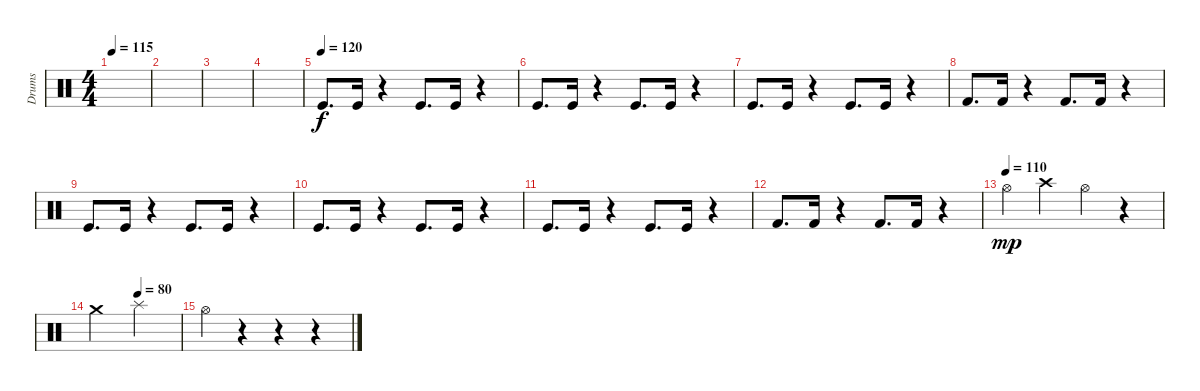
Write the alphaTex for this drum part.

\track ("Drums" "Drums") {instrument percussion}
\staff {score}
\articulation defaults
\ts (4 4)
\tempo 115
\clef neutral
\ks c
|
|
|
|
\tempo (120)
"Kick (hit)".8{d} "Kick (hit)".16 r.4 "Kick (hit)".8{d} "Kick (hit)".16 r.4 |
"Kick (hit)".8{d} "Kick (hit)".16 r.4 "Kick (hit)".8{d} "Kick (hit)".16 r.4 |
"Kick (hit)".8{d} "Kick (hit)".16 r.4 "Kick (hit)".8{d} "Kick (hit)".16 r.4 |
"Kick (hit) 2".8{d} "Kick (hit) 2".16 r.4 "Kick (hit) 2".8{d} "Kick (hit) 2".16 r.4 |
"Kick (hit)".8{d} "Kick (hit)".16 r.4 "Kick (hit)".8{d} "Kick (hit)".16 r.4 |
"Kick (hit)".8{d} "Kick (hit)".16 r.4 "Kick (hit)".8{d} "Kick (hit)".16 r.4 |
"Kick (hit)".8{d} "Kick (hit)".16 r.4 "Kick (hit)".8{d} "Kick (hit)".16 r.4 |
"Kick (hit) 2".8{d} "Kick (hit) 2".16 r.4 "Kick (hit) 2".8{d} "Kick (hit) 2".16 r.4 |
\tempo (110)
"Hi-Hat (open)".4{dy mp} "Crash high (hit)".4 "Hi-Hat (open)".4 r.4 |
\tempo (80 0.5)
"Crash medium (hit)".2 "Splash (hit)".2 |
"Hi-Hat (open)".4 r.4 r.4 r.4
